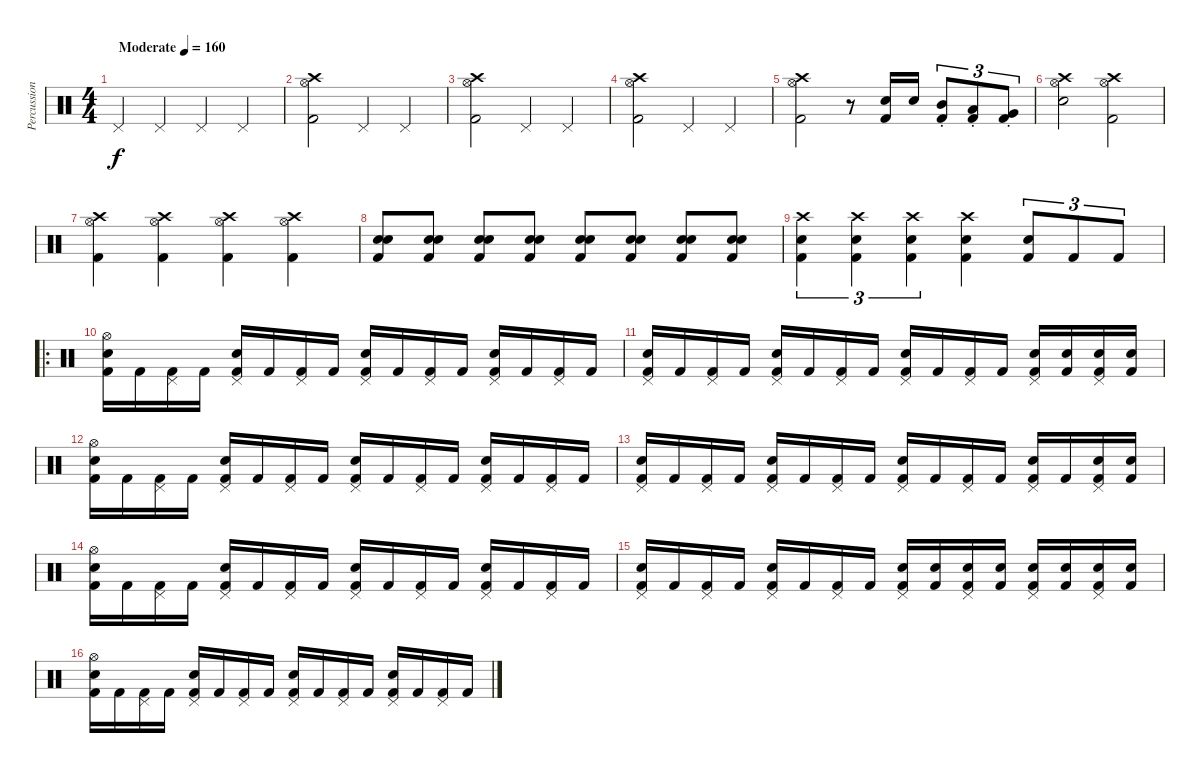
\track ("Percussion" "Percussion") {instrument percussion}
\staff {score}
\articulation defaults
\ts (4 4)
\tempo (160 "Moderate")
\clef neutral
\ks c "Pedal Hi-Hat (hit)".4{dy f} "Pedal Hi-Hat (hit)".4 "Pedal Hi-Hat (hit)".4 "Pedal Hi-Hat (hit)".4
|
("Hi-Hat (open)" "Crash high (hit)" "Kick (hit) 2").2 "Pedal Hi-Hat (hit)".4 "Pedal Hi-Hat (hit)".4 |
("Hi-Hat (open)" "Crash high (hit)" "Kick (hit) 2").2 "Pedal Hi-Hat (hit)".4 "Pedal Hi-Hat (hit)".4 |
("Hi-Hat (open)" "Crash high (hit)" "Kick (hit) 2").2 "Pedal Hi-Hat (hit)".4 "Pedal Hi-Hat (hit)".4 |
("Hi-Hat (open)" "Crash high (hit)" "Kick (hit) 2").2 r.8 ("Kick (hit) 2" "Snare (hit) 2").16 "Snare (hit) 2".16 ("Mid Tom (hit)"{st} "Kick (hit) 2").8{tu (3 2)} ("Low Tom (hit)"{st} "Kick (hit) 2").8{tu (3 2)} ("Very Low Tom (hit)"{st} "Kick (hit) 2").8{tu (3 2)} |
("Hi-Hat (open)" "Crash high (hit)" "Snare (hit) 2").2 ("Hi-Hat (open)" "Crash high (hit)" "Kick (hit) 2").2 |
("Hi-Hat (open)" "Crash high (hit)" "Kick (hit) 2").4 ("Hi-Hat (open)" "Crash high (hit)" "Kick (hit) 2").4 ("Hi-Hat (open)" "Crash high (hit)" "Kick (hit) 2").4 ("Hi-Hat (open)" "Crash high (hit)" "Kick (hit) 2").4 |
("Snare (hit) 2" "Snare (hit) 2" "Kick (hit) 2").8{volume 6} ("Snare (hit) 2" "Snare (hit) 2" "Kick (hit) 2").8{volume 16} ("Snare (hit) 2" "Snare (hit) 2" "Kick (hit) 2").8 ("Snare (hit) 2" "Snare (hit) 2" "Kick (hit) 2").8 ("Snare (hit) 2" "Snare (hit) 2" "Kick (hit) 2").8 ("Snare (hit) 2" "Snare (hit) 2" "Kick (hit) 2").8 ("Snare (hit) 2" "Snare (hit) 2" "Kick (hit) 2").8 ("Snare (hit) 2" "Snare (hit) 2" "Kick (hit) 2").8 |
("Crash high (hit)" "Snare (hit) 2" "Kick (hit) 2").4{tu (3 2)} ("Crash high (hit)" "Snare (hit) 2" "Kick (hit) 2").4{tu (3 2)} ("Crash high (hit)" "Snare (hit) 2" "Kick (hit) 2").4{tu (3 2)} ("Crash high (hit)" "Snare (hit) 2" "Kick (hit) 2").4 ("Snare (hit) 2" "Kick (hit) 2").8{tu (3 2)} "Kick (hit) 2".8{tu (3 2)} "Kick (hit) 2".8{tu (3 2)} |
\ro
("Hi-Hat (open)" "Snare (hit) 2" "Kick (hit) 2").16 "Kick (hit) 2".16 ("Pedal Hi-Hat (hit)" "Kick (hit) 2").16 "Kick (hit) 2".16 ("Pedal Hi-Hat (hit)" "Snare (hit) 2" "Kick (hit) 2").16 "Kick (hit) 2".16 ("Pedal Hi-Hat (hit)" "Kick (hit) 2").16 "Kick (hit) 2".16 ("Pedal Hi-Hat (hit)" "Snare (hit) 2" "Kick (hit) 2").16 "Kick (hit) 2".16 ("Pedal Hi-Hat (hit)" "Kick (hit) 2").16 "Kick (hit) 2".16 ("Pedal Hi-Hat (hit)" "Snare (hit) 2" "Kick (hit) 2").16 "Kick (hit) 2".16 ("Pedal Hi-Hat (hit)" "Kick (hit) 2").16 "Kick (hit) 2".16 |
("Pedal Hi-Hat (hit)" "Snare (hit) 2" "Kick (hit) 2").16 "Kick (hit) 2".16 ("Pedal Hi-Hat (hit)" "Kick (hit) 2").16 "Kick (hit) 2".16 ("Pedal Hi-Hat (hit)" "Snare (hit) 2" "Kick (hit) 2").16 "Kick (hit) 2".16 ("Pedal Hi-Hat (hit)" "Kick (hit) 2").16 "Kick (hit) 2".16 ("Pedal Hi-Hat (hit)" "Snare (hit) 2" "Kick (hit) 2").16 "Kick (hit) 2".16 ("Pedal Hi-Hat (hit)" "Kick (hit) 2").16 "Kick (hit) 2".16 ("Pedal Hi-Hat (hit)" "Snare (hit) 2" "Kick (hit) 2").16 ("Snare (hit) 2" "Kick (hit) 2").16 ("Pedal Hi-Hat (hit)" "Snare (hit) 2" "Kick (hit) 2").16 ("Snare (hit) 2" "Kick (hit) 2").16 |
("Hi-Hat (open)" "Snare (hit) 2" "Kick (hit) 2").16 "Kick (hit) 2".16 ("Pedal Hi-Hat (hit)" "Kick (hit) 2").16 "Kick (hit) 2".16 ("Pedal Hi-Hat (hit)" "Snare (hit) 2" "Kick (hit) 2").16 "Kick (hit) 2".16 ("Pedal Hi-Hat (hit)" "Kick (hit) 2").16 "Kick (hit) 2".16 ("Pedal Hi-Hat (hit)" "Snare (hit) 2" "Kick (hit) 2").16 "Kick (hit) 2".16 ("Pedal Hi-Hat (hit)" "Kick (hit) 2").16 "Kick (hit) 2".16 ("Pedal Hi-Hat (hit)" "Snare (hit) 2" "Kick (hit) 2").16 "Kick (hit) 2".16 ("Pedal Hi-Hat (hit)" "Kick (hit) 2").16 "Kick (hit) 2".16 |
("Pedal Hi-Hat (hit)" "Snare (hit) 2" "Kick (hit) 2").16 "Kick (hit) 2".16 ("Pedal Hi-Hat (hit)" "Kick (hit) 2").16 "Kick (hit) 2".16 ("Pedal Hi-Hat (hit)" "Snare (hit) 2" "Kick (hit) 2").16 "Kick (hit) 2".16 ("Pedal Hi-Hat (hit)" "Kick (hit) 2").16 "Kick (hit) 2".16 ("Pedal Hi-Hat (hit)" "Snare (hit) 2" "Kick (hit) 2").16 "Kick (hit) 2".16 ("Pedal Hi-Hat (hit)" "Kick (hit) 2").16 "Kick (hit) 2".16 ("Pedal Hi-Hat (hit)" "Snare (hit) 2" "Kick (hit) 2").16 "Kick (hit) 2".16 ("Pedal Hi-Hat (hit)" "Snare (hit) 2" "Kick (hit) 2").16 ("Snare (hit) 2" "Kick (hit) 2").16 |
("Hi-Hat (open)" "Snare (hit) 2" "Kick (hit) 2").16 "Kick (hit) 2".16 ("Pedal Hi-Hat (hit)" "Kick (hit) 2").16 "Kick (hit) 2".16 ("Pedal Hi-Hat (hit)" "Snare (hit) 2" "Kick (hit) 2").16 "Kick (hit) 2".16 ("Pedal Hi-Hat (hit)" "Kick (hit) 2").16 "Kick (hit) 2".16 ("Pedal Hi-Hat (hit)" "Snare (hit) 2" "Kick (hit) 2").16 "Kick (hit) 2".16 ("Pedal Hi-Hat (hit)" "Kick (hit) 2").16 "Kick (hit) 2".16 ("Pedal Hi-Hat (hit)" "Snare (hit) 2" "Kick (hit) 2").16 "Kick (hit) 2".16 ("Pedal Hi-Hat (hit)" "Kick (hit) 2").16 "Kick (hit) 2".16 |
("Pedal Hi-Hat (hit)" "Snare (hit) 2" "Kick (hit) 2").16 "Kick (hit) 2".16 ("Pedal Hi-Hat (hit)" "Kick (hit) 2").16 "Kick (hit) 2".16 ("Pedal Hi-Hat (hit)" "Snare (hit) 2" "Kick (hit) 2").16 "Kick (hit) 2".16 ("Pedal Hi-Hat (hit)" "Kick (hit) 2").16 "Kick (hit) 2".16 ("Pedal Hi-Hat (hit)" "Snare (hit) 2" "Kick (hit) 2").16 ("Hand Clap (hit)" "Kick (hit) 2").16 ("Pedal Hi-Hat (hit)" "Hand Clap (hit)" "Kick (hit) 2").16 ("Hand Clap (hit)" "Kick (hit) 2").16 ("Pedal Hi-Hat (hit)" "Snare (hit) 2" "Kick (hit) 2").16 ("Hand Clap (hit)" "Kick (hit) 2").16 ("Pedal Hi-Hat (hit)" "Hand Clap (hit)" "Kick (hit) 2").16 ("Hand Clap (hit)" "Kick (hit) 2").16 |
("Hi-Hat (open)" "Snare (hit) 2" "Kick (hit) 2").16 "Kick (hit) 2".16 ("Pedal Hi-Hat (hit)" "Kick (hit) 2").16 "Kick (hit) 2".16 ("Pedal Hi-Hat (hit)" "Snare (hit) 2" "Kick (hit) 2").16 "Kick (hit) 2".16 ("Pedal Hi-Hat (hit)" "Kick (hit) 2").16 "Kick (hit) 2".16 ("Pedal Hi-Hat (hit)" "Snare (hit) 2" "Kick (hit) 2").16 "Kick (hit) 2".16 ("Pedal Hi-Hat (hit)" "Kick (hit) 2").16 "Kick (hit) 2".16 ("Pedal Hi-Hat (hit)" "Snare (hit) 2" "Kick (hit) 2").16 "Kick (hit) 2".16 ("Pedal Hi-Hat (hit)" "Kick (hit) 2").16 "Kick (hit) 2".16
